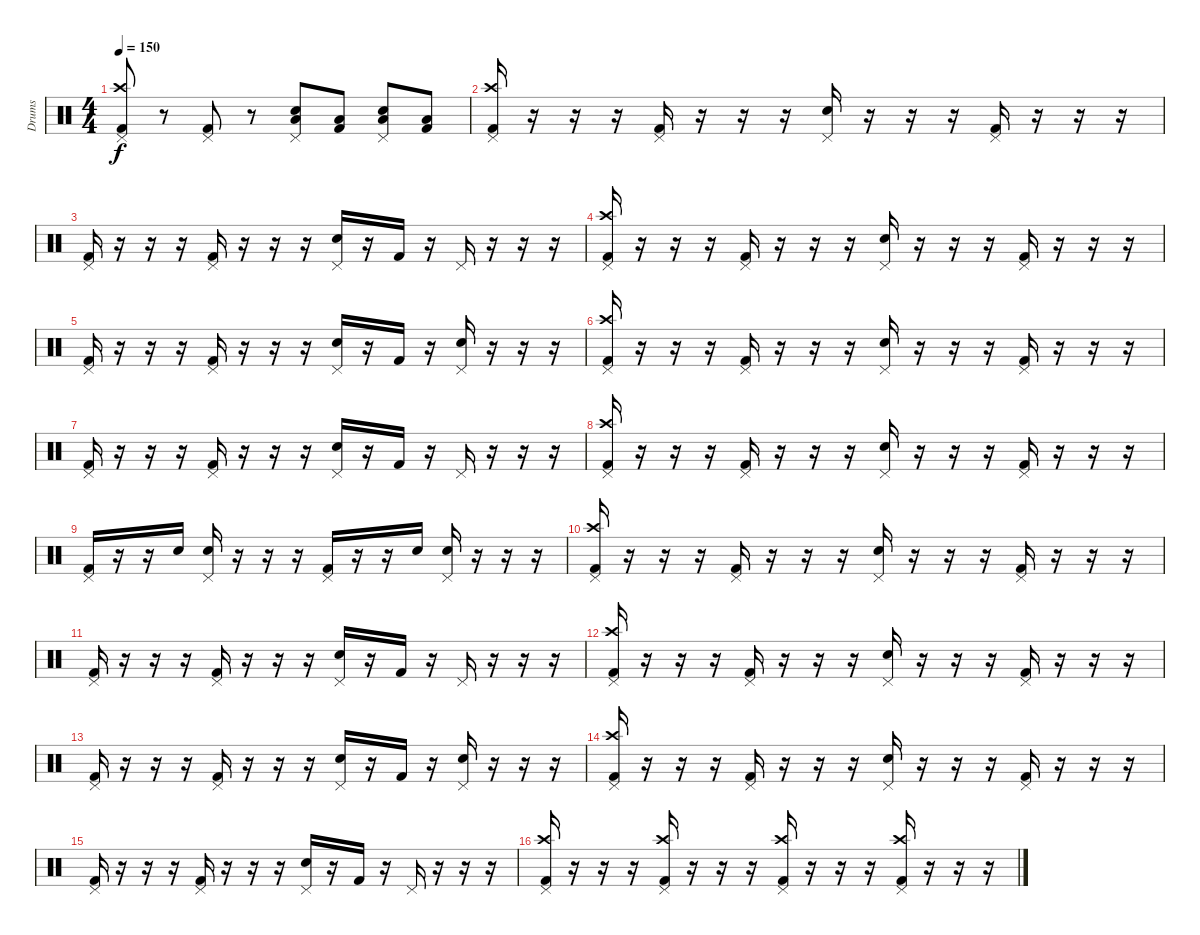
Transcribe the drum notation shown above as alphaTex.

\track ("Drums" "Drums") {instrument percussion}
\staff {score}
\articulation defaults
\ts (4 4)
\tempo 150
\clef neutral
\ks c
("Pedal Hi-Hat (hit)" "Crash high (hit)" "Kick (hit) 2").8{dy f} r.8 ("Pedal Hi-Hat (hit)" "Kick (hit) 2").8 r.8 ("Pedal Hi-Hat (hit)" "Low Floor Tom (hit)" "Electric Snare (hit)").8 ("Low Floor Tom (hit)" "Kick (hit) 2").8 ("Pedal Hi-Hat (hit)" "Low Floor Tom (hit)" "Electric Snare (hit)").8 ("Low Floor Tom (hit)" "Kick (hit) 2").8 |
("Pedal Hi-Hat (hit)" "Crash high (hit)" "Kick (hit) 2").16 r.16 r.16 r.16 ("Pedal Hi-Hat (hit)" "Kick (hit) 2").16 r.16 r.16 r.16 ("Pedal Hi-Hat (hit)" "Electric Snare (hit)").16 r.16 r.16 r.16 ("Pedal Hi-Hat (hit)" "Kick (hit) 2").16 r.16 r.16 r.16 |
("Pedal Hi-Hat (hit)" "Kick (hit) 2").16 r.16 r.16 r.16 ("Pedal Hi-Hat (hit)" "Kick (hit) 2").16 r.16 r.16 r.16 ("Pedal Hi-Hat (hit)" "Electric Snare (hit)").16 r.16 "Kick (hit) 2".16 r.16 "Pedal Hi-Hat (hit)".16 r.16 r.16 r.16 |
("Pedal Hi-Hat (hit)" "Crash high (hit)" "Kick (hit) 2").16 r.16 r.16 r.16 ("Pedal Hi-Hat (hit)" "Kick (hit) 2").16 r.16 r.16 r.16 ("Pedal Hi-Hat (hit)" "Electric Snare (hit)").16 r.16 r.16 r.16 ("Pedal Hi-Hat (hit)" "Kick (hit) 2").16 r.16 r.16 r.16 |
("Pedal Hi-Hat (hit)" "Kick (hit) 2").16 r.16 r.16 r.16 ("Pedal Hi-Hat (hit)" "Kick (hit) 2").16 r.16 r.16 r.16 ("Pedal Hi-Hat (hit)" "Electric Snare (hit)").16 r.16 "Kick (hit) 2".16 r.16 ("Pedal Hi-Hat (hit)" "Electric Snare (hit)").16 r.16 r.16 r.16 |
("Pedal Hi-Hat (hit)" "Crash high (hit)" "Kick (hit) 2").16 r.16 r.16 r.16 ("Pedal Hi-Hat (hit)" "Kick (hit) 2").16 r.16 r.16 r.16 ("Pedal Hi-Hat (hit)" "Electric Snare (hit)").16 r.16 r.16 r.16 ("Pedal Hi-Hat (hit)" "Kick (hit) 2").16 r.16 r.16 r.16 |
("Pedal Hi-Hat (hit)" "Kick (hit) 2").16 r.16 r.16 r.16 ("Pedal Hi-Hat (hit)" "Kick (hit) 2").16 r.16 r.16 r.16 ("Pedal Hi-Hat (hit)" "Electric Snare (hit)").16 r.16 "Kick (hit) 2".16 r.16 "Pedal Hi-Hat (hit)".16 r.16 r.16 r.16 |
("Pedal Hi-Hat (hit)" "Crash high (hit)" "Kick (hit) 2").16 r.16 r.16 r.16 ("Pedal Hi-Hat (hit)" "Kick (hit) 2").16 r.16 r.16 r.16 ("Pedal Hi-Hat (hit)" "Electric Snare (hit)").16 r.16 r.16 r.16 ("Pedal Hi-Hat (hit)" "Kick (hit) 2").16 r.16 r.16 r.16 |
("Pedal Hi-Hat (hit)" "Kick (hit) 2").16 r.16 r.16 "Electric Snare (hit)".16 ("Pedal Hi-Hat (hit)" "Electric Snare (hit)").16 r.16 r.16 r.16 ("Pedal Hi-Hat (hit)" "Kick (hit) 2").16 r.16 r.16 "Electric Snare (hit)".16 ("Pedal Hi-Hat (hit)" "Electric Snare (hit)").16 r.16 r.16 r.16 |
("Pedal Hi-Hat (hit)" "Crash high (hit)" "Kick (hit) 2").16 r.16 r.16 r.16 ("Pedal Hi-Hat (hit)" "Kick (hit) 2").16 r.16 r.16 r.16 ("Pedal Hi-Hat (hit)" "Electric Snare (hit)").16 r.16 r.16 r.16 ("Pedal Hi-Hat (hit)" "Kick (hit) 2").16 r.16 r.16 r.16 |
("Pedal Hi-Hat (hit)" "Kick (hit) 2").16 r.16 r.16 r.16 ("Pedal Hi-Hat (hit)" "Kick (hit) 2").16 r.16 r.16 r.16 ("Pedal Hi-Hat (hit)" "Electric Snare (hit)").16 r.16 "Kick (hit) 2".16 r.16 "Pedal Hi-Hat (hit)".16 r.16 r.16 r.16 |
("Pedal Hi-Hat (hit)" "Crash high (hit)" "Kick (hit) 2").16 r.16 r.16 r.16 ("Pedal Hi-Hat (hit)" "Kick (hit) 2").16 r.16 r.16 r.16 ("Pedal Hi-Hat (hit)" "Electric Snare (hit)").16 r.16 r.16 r.16 ("Pedal Hi-Hat (hit)" "Kick (hit) 2").16 r.16 r.16 r.16 |
("Pedal Hi-Hat (hit)" "Kick (hit) 2").16 r.16 r.16 r.16 ("Pedal Hi-Hat (hit)" "Kick (hit) 2").16 r.16 r.16 r.16 ("Pedal Hi-Hat (hit)" "Electric Snare (hit)").16 r.16 "Kick (hit) 2".16 r.16 ("Pedal Hi-Hat (hit)" "Electric Snare (hit)").16 r.16 r.16 r.16 |
("Pedal Hi-Hat (hit)" "Crash high (hit)" "Kick (hit) 2").16 r.16 r.16 r.16 ("Pedal Hi-Hat (hit)" "Kick (hit) 2").16 r.16 r.16 r.16 ("Pedal Hi-Hat (hit)" "Electric Snare (hit)").16 r.16 r.16 r.16 ("Pedal Hi-Hat (hit)" "Kick (hit) 2").16 r.16 r.16 r.16 |
("Pedal Hi-Hat (hit)" "Kick (hit) 2").16 r.16 r.16 r.16 ("Pedal Hi-Hat (hit)" "Kick (hit) 2").16 r.16 r.16 r.16 ("Pedal Hi-Hat (hit)" "Electric Snare (hit)").16 r.16 "Kick (hit) 2".16 r.16 "Pedal Hi-Hat (hit)".16 r.16 r.16 r.16 |
("Pedal Hi-Hat (hit)" "Crash high (hit)" "Kick (hit) 2").16 r.16 r.16 r.16 ("Pedal Hi-Hat (hit)" "Crash high (hit)" "Kick (hit) 2").16 r.16 r.16 r.16 ("Pedal Hi-Hat (hit)" "Crash high (hit)" "Kick (hit) 2").16 r.16 r.16 r.16 ("Pedal Hi-Hat (hit)" "Crash high (hit)" "Kick (hit) 2").16 r.16 r.16 r.16
